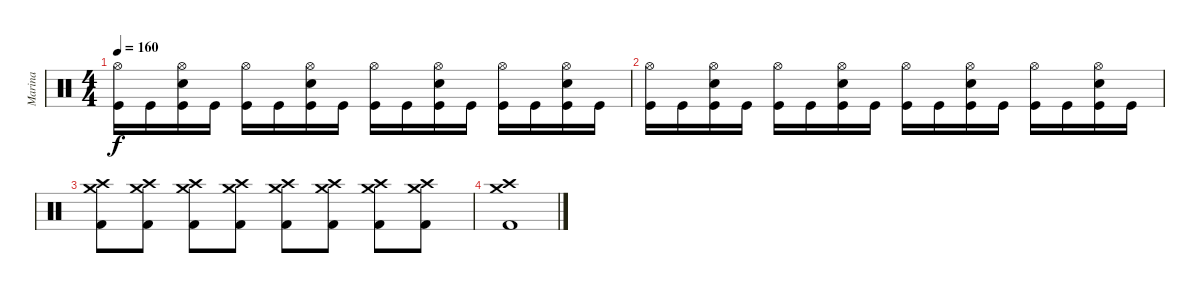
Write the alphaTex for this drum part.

\track ("Marina" "Marina") {instrument percussion}
\staff {score}
\articulation defaults
\ts (4 4)
\tempo 160
\clef neutral
\ks c
("Hi-Hat (open)" "Kick (hit)").16{dy f} "Kick (hit)".16 ("Hi-Hat (open)" "Snare (hit) 2" "Kick (hit)").16 "Kick (hit)".16 ("Hi-Hat (open)" "Kick (hit)").16 "Kick (hit)".16 ("Hi-Hat (open)" "Snare (hit) 2" "Kick (hit)").16 "Kick (hit)".16 ("Hi-Hat (open)" "Kick (hit)").16 "Kick (hit)".16 ("Hi-Hat (open)" "Snare (hit) 2" "Kick (hit)").16 "Kick (hit)".16 ("Hi-Hat (open)" "Kick (hit)").16 "Kick (hit)".16 ("Hi-Hat (open)" "Snare (hit) 2" "Kick (hit)").16 "Kick (hit)".16 |
("Hi-Hat (open)" "Kick (hit)").16 "Kick (hit)".16 ("Hi-Hat (open)" "Snare (hit) 2" "Kick (hit)").16 "Kick (hit)".16 ("Hi-Hat (open)" "Kick (hit)").16 "Kick (hit)".16 ("Hi-Hat (open)" "Snare (hit) 2" "Kick (hit)").16 "Kick (hit)".16 ("Hi-Hat (open)" "Kick (hit)").16 "Kick (hit)".16 ("Hi-Hat (open)" "Snare (hit) 2" "Kick (hit)").16 "Kick (hit)".16 ("Hi-Hat (open)" "Kick (hit)").16 "Kick (hit)".16 ("Hi-Hat (open)" "Snare (hit) 2" "Kick (hit)").16 "Kick (hit)".16 |
("Kick (hit) 2" "Crash high (hit)" "Crash medium (hit)").8 ("Kick (hit) 2" "Crash high (hit)" "Crash medium (hit)").8 ("Kick (hit) 2" "Crash high (hit)" "Crash medium (hit)").8 ("Kick (hit) 2" "Crash high (hit)" "Crash medium (hit)").8 ("Kick (hit) 2" "Crash high (hit)" "Crash medium (hit)").8 ("Kick (hit) 2" "Crash high (hit)" "Crash medium (hit)").8 ("Kick (hit) 2" "Crash high (hit)" "Crash medium (hit)").8 ("Kick (hit) 2" "Crash high (hit)" "Crash medium (hit)").8 |
("Kick (hit) 2" "Crash high (hit)" "Crash medium (hit)").1
